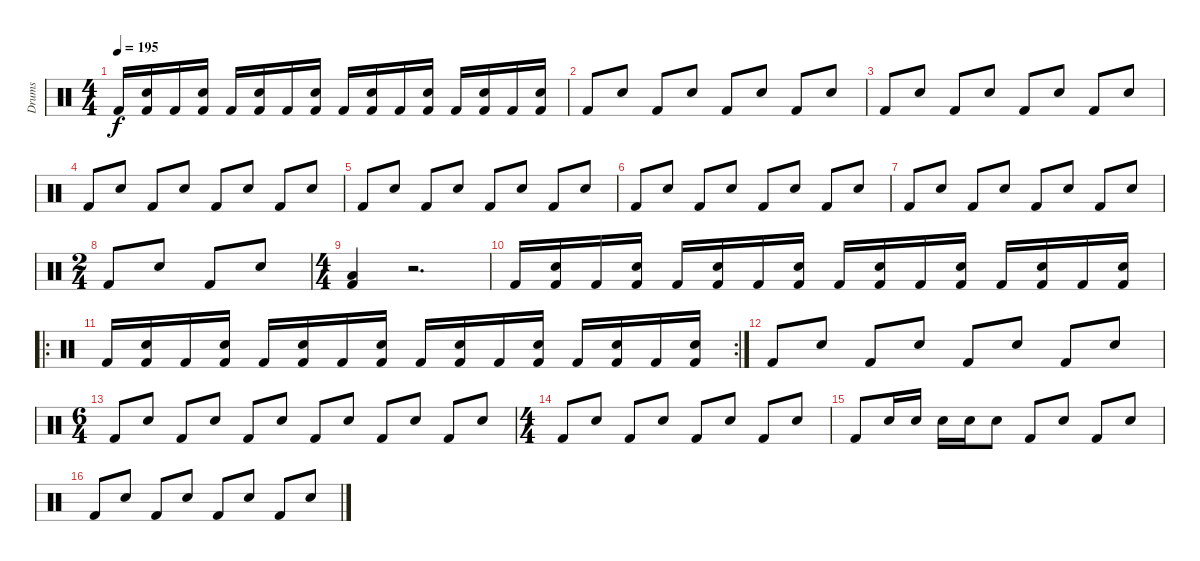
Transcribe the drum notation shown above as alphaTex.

\track ("Drums" "Drums") {instrument percussion}
\staff {score}
\articulation defaults
\ts (4 4)
\tempo 195
\clef neutral
\ks c "Kick (hit) 2".16{dy f}
("Electric Snare (hit)" "Kick (hit) 2").16 "Kick (hit) 2".16 ("Electric Snare (hit)" "Kick (hit) 2").16 "Kick (hit) 2".16 ("Electric Snare (hit)" "Kick (hit) 2").16 "Kick (hit) 2".16 ("Electric Snare (hit)" "Kick (hit) 2").16 "Kick (hit) 2".16 ("Electric Snare (hit)" "Kick (hit) 2").16 "Kick (hit) 2".16 ("Electric Snare (hit)" "Kick (hit) 2").16 "Kick (hit) 2".16 ("Electric Snare (hit)" "Kick (hit) 2").16 "Kick (hit) 2".16 ("Electric Snare (hit)" "Kick (hit) 2").16 |
"Kick (hit) 2".8 "Electric Snare (hit)".8 "Kick (hit) 2".8 "Electric Snare (hit)".8 "Kick (hit) 2".8 "Electric Snare (hit)".8 "Kick (hit) 2".8 "Electric Snare (hit)".8 |
"Kick (hit) 2".8 "Electric Snare (hit)".8 "Kick (hit) 2".8 "Electric Snare (hit)".8 "Kick (hit) 2".8 "Electric Snare (hit)".8 "Kick (hit) 2".8 "Electric Snare (hit)".8 |
"Kick (hit) 2".8 "Electric Snare (hit)".8 "Kick (hit) 2".8 "Electric Snare (hit)".8 "Kick (hit) 2".8 "Electric Snare (hit)".8 "Kick (hit) 2".8 "Electric Snare (hit)".8 |
"Kick (hit) 2".8 "Electric Snare (hit)".8 "Kick (hit) 2".8 "Electric Snare (hit)".8 "Kick (hit) 2".8 "Electric Snare (hit)".8 "Kick (hit) 2".8 "Electric Snare (hit)".8 |
"Kick (hit) 2".8 "Electric Snare (hit)".8 "Kick (hit) 2".8 "Electric Snare (hit)".8 "Kick (hit) 2".8 "Electric Snare (hit)".8 "Kick (hit) 2".8 "Electric Snare (hit)".8 |
"Kick (hit) 2".8 "Electric Snare (hit)".8 "Kick (hit) 2".8 "Electric Snare (hit)".8 "Kick (hit) 2".8 "Electric Snare (hit)".8 "Kick (hit) 2".8 "Electric Snare (hit)".8 |
\ts (2 4)
"Kick (hit) 2".8 "Electric Snare (hit)".8 "Kick (hit) 2".8 "Electric Snare (hit)".8 |
\ts (4 4)
("Low Floor Tom (hit)" "Kick (hit) 2").4 r.2{d} |
"Kick (hit) 2".16 ("Electric Snare (hit)" "Kick (hit) 2").16 "Kick (hit) 2".16 ("Electric Snare (hit)" "Kick (hit) 2").16 "Kick (hit) 2".16 ("Electric Snare (hit)" "Kick (hit) 2").16 "Kick (hit) 2".16 ("Electric Snare (hit)" "Kick (hit) 2").16 "Kick (hit) 2".16 ("Electric Snare (hit)" "Kick (hit) 2").16 "Kick (hit) 2".16 ("Electric Snare (hit)" "Kick (hit) 2").16 "Kick (hit) 2".16 ("Electric Snare (hit)" "Kick (hit) 2").16 "Kick (hit) 2".16 ("Electric Snare (hit)" "Kick (hit) 2").16 |
\ro
\rc 2 "Kick (hit) 2".16
("Electric Snare (hit)" "Kick (hit) 2").16 "Kick (hit) 2".16 ("Electric Snare (hit)" "Kick (hit) 2").16 "Kick (hit) 2".16 ("Electric Snare (hit)" "Kick (hit) 2").16 "Kick (hit) 2".16 ("Electric Snare (hit)" "Kick (hit) 2").16 "Kick (hit) 2".16 ("Electric Snare (hit)" "Kick (hit) 2").16 "Kick (hit) 2".16 ("Electric Snare (hit)" "Kick (hit) 2").16 "Kick (hit) 2".16 ("Electric Snare (hit)" "Kick (hit) 2").16 "Kick (hit) 2".16 ("Electric Snare (hit)" "Kick (hit) 2").16 |
"Kick (hit) 2".8 "Electric Snare (hit)".8 "Kick (hit) 2".8 "Electric Snare (hit)".8 "Kick (hit) 2".8 "Electric Snare (hit)".8 "Kick (hit) 2".8 "Electric Snare (hit)".8 |
\ts (6 4)
"Kick (hit) 2".8 "Electric Snare (hit)".8 "Kick (hit) 2".8 "Electric Snare (hit)".8 "Kick (hit) 2".8 "Electric Snare (hit)".8 "Kick (hit) 2".8 "Electric Snare (hit)".8 "Kick (hit) 2".8 "Electric Snare (hit)".8 "Kick (hit) 2".8 "Electric Snare (hit)".8 |
\ts (4 4)
"Kick (hit) 2".8 "Electric Snare (hit)".8 "Kick (hit) 2".8 "Electric Snare (hit)".8 "Kick (hit) 2".8 "Electric Snare (hit)".8 "Kick (hit) 2".8 "Electric Snare (hit)".8 |
"Kick (hit) 2".8 "Electric Snare (hit)".16 "Electric Snare (hit)".16 "Electric Snare (hit)".16 "Electric Snare (hit)".16 "Electric Snare (hit)".8 "Kick (hit) 2".8 "Electric Snare (hit)".8 "Kick (hit) 2".8 "Electric Snare (hit)".8 |
"Kick (hit) 2".8 "Electric Snare (hit)".8 "Kick (hit) 2".8 "Electric Snare (hit)".8 "Kick (hit) 2".8 "Electric Snare (hit)".8 "Kick (hit) 2".8 "Electric Snare (hit)".8
